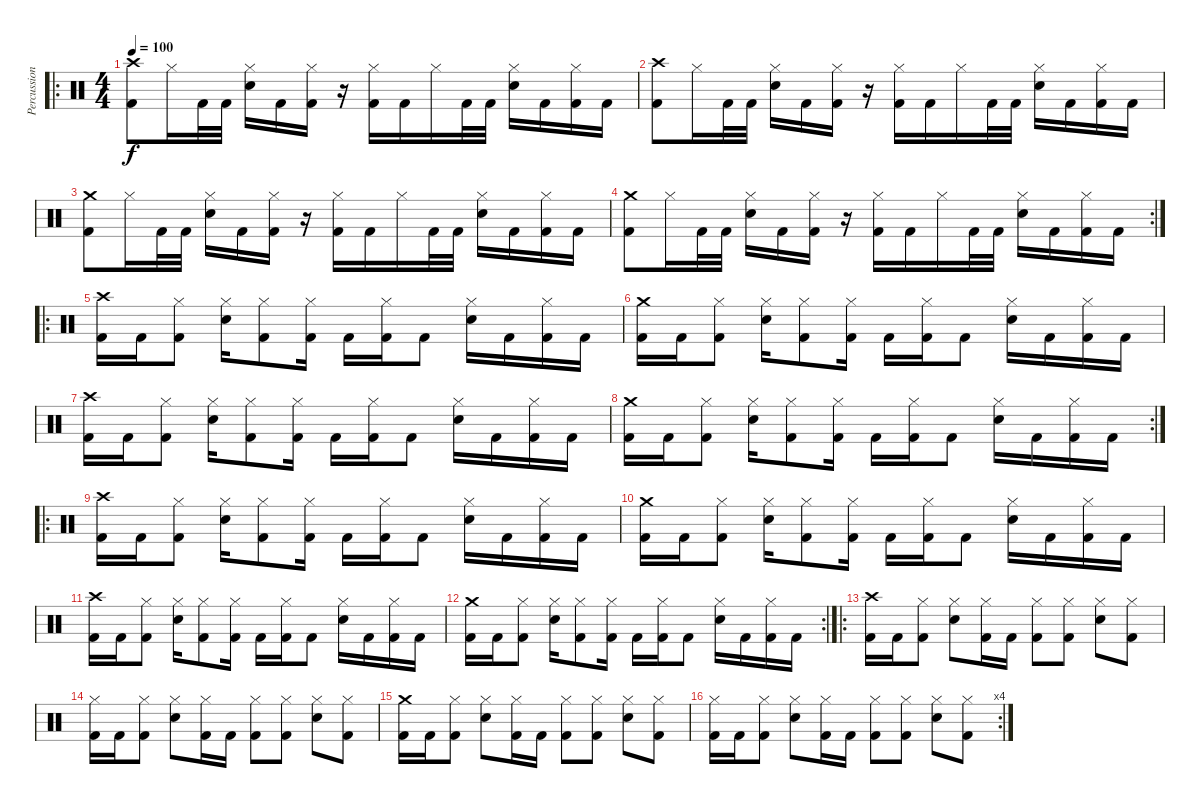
\track ("Percussion" "Percussion") {instrument percussion}
\staff {score}
\articulation defaults
\ro
\ts (4 4)
\tempo 100
\clef neutral
\ks c
("Crash high (hit)" "Kick (hit) 2").8{dy f} "Hi-Hat (closed)".16 "Kick (hit) 2".32 "Kick (hit) 2".32 ("Hi-Hat (closed)" "Electric Snare (hit)").16 "Kick (hit) 2".16 ("Hi-Hat (closed)" "Kick (hit) 2").16 r.16 ("Hi-Hat (closed)" "Kick (hit) 2").16 "Kick (hit) 2".16 "Hi-Hat (closed)".16 "Kick (hit) 2".32 "Kick (hit) 2".32 ("Hi-Hat (closed)" "Electric Snare (hit)").16 "Kick (hit) 2".16 ("Hi-Hat (closed)" "Kick (hit) 2").16 "Kick (hit) 2".16 |
("Crash high (hit)" "Kick (hit) 2").8 "Hi-Hat (closed)".16 "Kick (hit) 2".32 "Kick (hit) 2".32 ("Hi-Hat (closed)" "Electric Snare (hit)").16 "Kick (hit) 2".16 ("Hi-Hat (closed)" "Kick (hit) 2").16 r.16 ("Hi-Hat (closed)" "Kick (hit) 2").16 "Kick (hit) 2".16 "Hi-Hat (closed)".16 "Kick (hit) 2".32 "Kick (hit) 2".32 ("Hi-Hat (closed)" "Electric Snare (hit)").16 "Kick (hit) 2".16 ("Hi-Hat (closed)" "Kick (hit) 2").16 "Kick (hit) 2".16 |
("Crash medium (hit)" "Kick (hit) 2").8 "Hi-Hat (closed)".16 "Kick (hit) 2".32 "Kick (hit) 2".32 ("Hi-Hat (closed)" "Electric Snare (hit)").16 "Kick (hit) 2".16 ("Hi-Hat (closed)" "Kick (hit) 2").16 r.16 ("Hi-Hat (closed)" "Kick (hit) 2").16 "Kick (hit) 2".16 "Hi-Hat (closed)".16 "Kick (hit) 2".32 "Kick (hit) 2".32 ("Hi-Hat (closed)" "Electric Snare (hit)").16 "Kick (hit) 2".16 ("Hi-Hat (closed)" "Kick (hit) 2").16 "Kick (hit) 2".16 |
\rc 2
("Crash medium (hit)" "Kick (hit) 2").8 "Hi-Hat (closed)".16 "Kick (hit) 2".32 "Kick (hit) 2".32 ("Hi-Hat (closed)" "Electric Snare (hit)").16 "Kick (hit) 2".16 ("Hi-Hat (closed)" "Kick (hit) 2").16 r.16 ("Hi-Hat (closed)" "Kick (hit) 2").16 "Kick (hit) 2".16 "Hi-Hat (closed)".16 "Kick (hit) 2".32 "Kick (hit) 2".32 ("Hi-Hat (closed)" "Electric Snare (hit)").16 "Kick (hit) 2".16 ("Hi-Hat (closed)" "Kick (hit) 2").16 "Kick (hit) 2".16 |
\ro
("Crash high (hit)" "Kick (hit) 2").16 "Kick (hit) 2".16 ("Hi-Hat (closed)" "Kick (hit) 2").8 ("Hi-Hat (closed)" "Electric Snare (hit)").16 ("Hi-Hat (closed)" "Kick (hit) 2").8 ("Hi-Hat (closed)" "Kick (hit) 2").16 "Kick (hit) 2".16 ("Hi-Hat (closed)" "Kick (hit) 2").16 "Kick (hit) 2".8 ("Hi-Hat (closed)" "Electric Snare (hit)").16 "Kick (hit) 2".16 ("Hi-Hat (closed)" "Kick (hit) 2").16 "Kick (hit) 2".16 |
("Crash medium (hit)" "Kick (hit) 2").16 "Kick (hit) 2".16 ("Hi-Hat (closed)" "Kick (hit) 2").8 ("Hi-Hat (closed)" "Electric Snare (hit)").16 ("Hi-Hat (closed)" "Kick (hit) 2").8 ("Hi-Hat (closed)" "Kick (hit) 2").16 "Kick (hit) 2".16 ("Hi-Hat (closed)" "Kick (hit) 2").16 "Kick (hit) 2".8 ("Hi-Hat (closed)" "Electric Snare (hit)").16 "Kick (hit) 2".16 ("Hi-Hat (closed)" "Kick (hit) 2").16 "Kick (hit) 2".16 |
("Crash high (hit)" "Kick (hit) 2").16 "Kick (hit) 2".16 ("Hi-Hat (closed)" "Kick (hit) 2").8 ("Hi-Hat (closed)" "Electric Snare (hit)").16 ("Hi-Hat (closed)" "Kick (hit) 2").8 ("Hi-Hat (closed)" "Kick (hit) 2").16 "Kick (hit) 2".16 ("Hi-Hat (closed)" "Kick (hit) 2").16 "Kick (hit) 2".8 ("Hi-Hat (closed)" "Electric Snare (hit)").16 "Kick (hit) 2".16 ("Hi-Hat (closed)" "Kick (hit) 2").16 "Kick (hit) 2".16 |
\rc 2
("Crash medium (hit)" "Kick (hit) 2").16 "Kick (hit) 2".16 ("Hi-Hat (closed)" "Kick (hit) 2").8 ("Hi-Hat (closed)" "Electric Snare (hit)").16 ("Hi-Hat (closed)" "Kick (hit) 2").8 ("Hi-Hat (closed)" "Kick (hit) 2").16 "Kick (hit) 2".16 ("Hi-Hat (closed)" "Kick (hit) 2").16 "Kick (hit) 2".8 ("Hi-Hat (closed)" "Electric Snare (hit)").16 "Kick (hit) 2".16 ("Hi-Hat (closed)" "Kick (hit) 2").16 "Kick (hit) 2".16 |
\ro
("Crash high (hit)" "Kick (hit) 2").16 "Kick (hit) 2".16 ("Hi-Hat (closed)" "Kick (hit) 2").8 ("Hi-Hat (closed)" "Electric Snare (hit)").16 ("Hi-Hat (closed)" "Kick (hit) 2").8 ("Hi-Hat (closed)" "Kick (hit) 2").16 "Kick (hit) 2".16 ("Hi-Hat (closed)" "Kick (hit) 2").16 "Kick (hit) 2".8 ("Hi-Hat (closed)" "Electric Snare (hit)").16 "Kick (hit) 2".16 ("Hi-Hat (closed)" "Kick (hit) 2").16 "Kick (hit) 2".16 |
("Crash medium (hit)" "Kick (hit) 2").16 "Kick (hit) 2".16 ("Hi-Hat (closed)" "Kick (hit) 2").8 ("Hi-Hat (closed)" "Electric Snare (hit)").16 ("Hi-Hat (closed)" "Kick (hit) 2").8 ("Hi-Hat (closed)" "Kick (hit) 2").16 "Kick (hit) 2".16 ("Hi-Hat (closed)" "Kick (hit) 2").16 "Kick (hit) 2".8 ("Hi-Hat (closed)" "Electric Snare (hit)").16 "Kick (hit) 2".16 ("Hi-Hat (closed)" "Kick (hit) 2").16 "Kick (hit) 2".16 |
("Crash high (hit)" "Kick (hit) 2").16 "Kick (hit) 2".16 ("Hi-Hat (closed)" "Kick (hit) 2").8 ("Hi-Hat (closed)" "Electric Snare (hit)").16 ("Hi-Hat (closed)" "Kick (hit) 2").8 ("Hi-Hat (closed)" "Kick (hit) 2").16 "Kick (hit) 2".16 ("Hi-Hat (closed)" "Kick (hit) 2").16 "Kick (hit) 2".8 ("Hi-Hat (closed)" "Electric Snare (hit)").16 "Kick (hit) 2".16 ("Hi-Hat (closed)" "Kick (hit) 2").16 "Kick (hit) 2".16 |
\rc 2
("Crash medium (hit)" "Kick (hit) 2").16 "Kick (hit) 2".16 ("Hi-Hat (closed)" "Kick (hit) 2").8 ("Hi-Hat (closed)" "Electric Snare (hit)").16 ("Hi-Hat (closed)" "Kick (hit) 2").8 ("Hi-Hat (closed)" "Kick (hit) 2").16 "Kick (hit) 2".16 ("Hi-Hat (closed)" "Kick (hit) 2").16 "Kick (hit) 2".8 ("Hi-Hat (closed)" "Electric Snare (hit)").16 "Kick (hit) 2".16 ("Hi-Hat (closed)" "Kick (hit) 2").16 "Kick (hit) 2".16 |
\ro
("Crash high (hit)" "Kick (hit) 2").16 "Kick (hit) 2".16 ("Hi-Hat (closed)" "Kick (hit) 2").8 ("Hi-Hat (closed)" "Electric Snare (hit)").8 ("Hi-Hat (closed)" "Kick (hit) 2").16 "Kick (hit) 2".16 ("Hi-Hat (closed)" "Kick (hit) 2").8 ("Hi-Hat (closed)" "Kick (hit) 2").8 ("Hi-Hat (closed)" "Electric Snare (hit)").8 ("Hi-Hat (closed)" "Kick (hit) 2").8 |
("Hi-Hat (closed)" "Kick (hit) 2").16 "Kick (hit) 2".16 ("Hi-Hat (closed)" "Kick (hit) 2").8 ("Hi-Hat (closed)" "Electric Snare (hit)").8 ("Hi-Hat (closed)" "Kick (hit) 2").16 "Kick (hit) 2".16 ("Hi-Hat (closed)" "Kick (hit) 2").8 ("Hi-Hat (closed)" "Kick (hit) 2").8 ("Hi-Hat (closed)" "Electric Snare (hit)").8 ("Hi-Hat (closed)" "Kick (hit) 2").8 |
("Crash medium (hit)" "Kick (hit) 2").16 "Kick (hit) 2".16 ("Hi-Hat (closed)" "Kick (hit) 2").8 ("Hi-Hat (closed)" "Electric Snare (hit)").8 ("Hi-Hat (closed)" "Kick (hit) 2").16 "Kick (hit) 2".16 ("Hi-Hat (closed)" "Kick (hit) 2").8 ("Hi-Hat (closed)" "Kick (hit) 2").8 ("Hi-Hat (closed)" "Electric Snare (hit)").8 ("Hi-Hat (closed)" "Kick (hit) 2").8 |
\rc 4
("Hi-Hat (closed)" "Kick (hit) 2").16 "Kick (hit) 2".16 ("Hi-Hat (closed)" "Kick (hit) 2").8 ("Hi-Hat (closed)" "Electric Snare (hit)").8 ("Hi-Hat (closed)" "Kick (hit) 2").16 "Kick (hit) 2".16 ("Hi-Hat (closed)" "Kick (hit) 2").8 ("Hi-Hat (closed)" "Kick (hit) 2").8 ("Hi-Hat (closed)" "Electric Snare (hit)").8 ("Hi-Hat (closed)" "Kick (hit) 2").8
